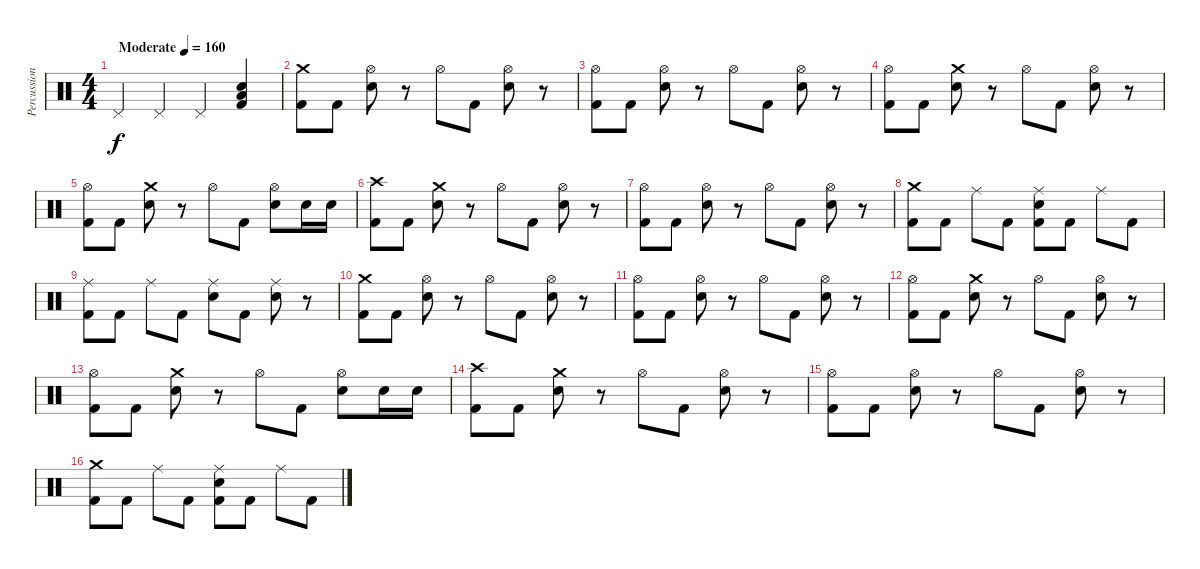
\track ("Percussion" "Percussion") {instrument percussion}
\staff {score}
\articulation defaults
\ts (4 4)
\tempo (160 "Moderate")
\clef neutral
\ks c "Pedal Hi-Hat (hit)".4{dy f} "Pedal Hi-Hat (hit)".4 "Pedal Hi-Hat (hit)".4
("Kick (hit) 2" "Snare (hit) 2" "Low Tom (hit)").4 |
("Kick (hit) 2" "Crash medium (hit)").8 "Kick (hit) 2".8 ("Snare (hit) 2" "Hi-Hat (open)").8 r.8 "Hi-Hat (open)".8 "Kick (hit) 2".8 ("Snare (hit) 2" "Hi-Hat (open)").8 r.8 |
("Kick (hit) 2" "Hi-Hat (open)").8 "Kick (hit) 2".8 ("Snare (hit) 2" "Hi-Hat (open)").8 r.8 "Hi-Hat (open)".8 "Kick (hit) 2".8 ("Snare (hit) 2" "Hi-Hat (open)").8 r.8 |
("Kick (hit) 2" "Hi-Hat (open)").8 "Kick (hit) 2".8 ("Snare (hit) 2" "Crash medium (hit)").8 r.8 "Hi-Hat (open)".8 "Kick (hit) 2".8 ("Snare (hit) 2" "Hi-Hat (open)").8 r.8 |
("Kick (hit) 2" "Hi-Hat (open)").8 "Kick (hit) 2".8 ("Snare (hit) 2" "Crash medium (hit)").8 r.8 "Hi-Hat (open)".8 "Kick (hit) 2".8 ("Snare (hit) 2" "Hi-Hat (open)").8 "Snare (hit) 2".16 "Snare (hit) 2".16 |
("Kick (hit) 2" "Crash high (hit)").8 "Kick (hit) 2".8 ("Snare (hit) 2" "Crash medium (hit)").8 r.8 "Hi-Hat (open)".8 "Kick (hit) 2".8 ("Snare (hit) 2" "Hi-Hat (open)").8 r.8 |
("Kick (hit) 2" "Hi-Hat (open)").8 "Kick (hit) 2".8 ("Snare (hit) 2" "Hi-Hat (open)").8 r.8 "Hi-Hat (open)".8 "Kick (hit) 2".8 ("Snare (hit) 2" "Hi-Hat (open)").8 r.8 |
("Kick (hit) 2" "Crash medium (hit)").8 "Kick (hit) 2".8 "Ride (middle)".8 "Kick (hit) 2".8 ("Kick (hit) 2" "Snare (hit) 2" "Ride (middle)").8 "Kick (hit) 2".8 "Ride (middle)".8 "Kick (hit) 2".8 |
("Kick (hit) 2" "Ride (middle)").8 "Kick (hit) 2".8 "Ride (middle)".8 "Kick (hit) 2".8 ("Snare (hit) 2" "Ride (middle)").8 "Kick (hit) 2".8 ("Snare (hit) 2" "Ride (middle)").8 r.8 |
("Kick (hit) 2" "Crash medium (hit)").8 "Kick (hit) 2".8 ("Snare (hit) 2" "Hi-Hat (open)").8 r.8 "Hi-Hat (open)".8 "Kick (hit) 2".8 ("Snare (hit) 2" "Hi-Hat (open)").8 r.8 |
("Kick (hit) 2" "Hi-Hat (open)").8 "Kick (hit) 2".8 ("Snare (hit) 2" "Hi-Hat (open)").8 r.8 "Hi-Hat (open)".8 "Kick (hit) 2".8 ("Snare (hit) 2" "Hi-Hat (open)").8 r.8 |
("Kick (hit) 2" "Hi-Hat (open)").8 "Kick (hit) 2".8 ("Snare (hit) 2" "Crash medium (hit)").8 r.8 "Hi-Hat (open)".8 "Kick (hit) 2".8 ("Snare (hit) 2" "Hi-Hat (open)").8 r.8 |
("Kick (hit) 2" "Hi-Hat (open)").8 "Kick (hit) 2".8 ("Snare (hit) 2" "Crash medium (hit)").8 r.8 "Hi-Hat (open)".8 "Kick (hit) 2".8 ("Snare (hit) 2" "Hi-Hat (open)").8 "Snare (hit) 2".16 "Snare (hit) 2".16 |
("Kick (hit) 2" "Crash high (hit)").8 "Kick (hit) 2".8 ("Snare (hit) 2" "Crash medium (hit)").8 r.8 "Hi-Hat (open)".8 "Kick (hit) 2".8 ("Snare (hit) 2" "Hi-Hat (open)").8 r.8 |
("Kick (hit) 2" "Hi-Hat (open)").8 "Kick (hit) 2".8 ("Snare (hit) 2" "Hi-Hat (open)").8 r.8 "Hi-Hat (open)".8 "Kick (hit) 2".8 ("Snare (hit) 2" "Hi-Hat (open)").8 r.8 |
("Kick (hit) 2" "Crash medium (hit)").8 "Kick (hit) 2".8 "Ride (middle)".8 "Kick (hit) 2".8 ("Kick (hit) 2" "Snare (hit) 2" "Ride (middle)").8 "Kick (hit) 2".8 "Ride (middle)".8 "Kick (hit) 2".8
